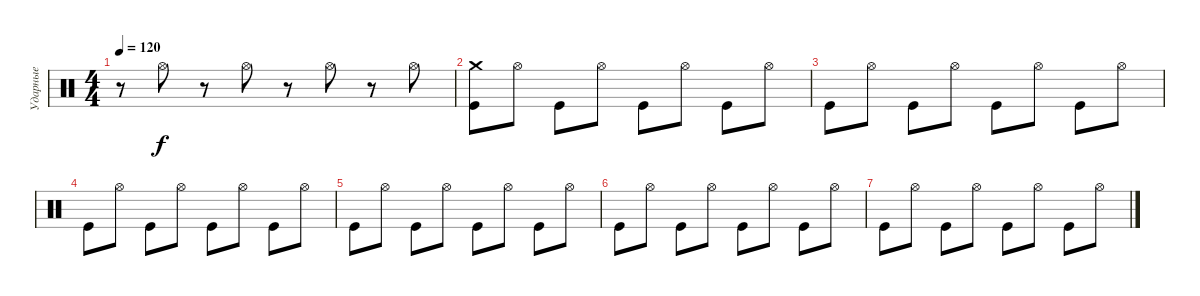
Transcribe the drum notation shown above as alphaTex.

\track ("Ударные" "Ударные") {instrument percussion}
\staff {score}
\articulation defaults
\ts (4 4)
\tempo 120
\clef neutral
\ks c
r.8{dy f} "Hi-Hat (open)".8 r.8 "Hi-Hat (open)".8 r.8 "Hi-Hat (open)".8 r.8 "Hi-Hat (open)".8 |
("Kick (hit)" "Crash medium (hit)").8 "Hi-Hat (open)".8 "Kick (hit)".8 "Hi-Hat (open)".8 "Kick (hit)".8 "Hi-Hat (open)".8 "Kick (hit)".8 "Hi-Hat (open)".8 |
"Kick (hit)".8 "Hi-Hat (open)".8 "Kick (hit)".8 "Hi-Hat (open)".8 "Kick (hit)".8 "Hi-Hat (open)".8 "Kick (hit)".8 "Hi-Hat (open)".8 |
"Kick (hit)".8 "Hi-Hat (open)".8 "Kick (hit)".8 "Hi-Hat (open)".8 "Kick (hit)".8 "Hi-Hat (open)".8 "Kick (hit)".8 "Hi-Hat (open)".8 |
"Kick (hit)".8 "Hi-Hat (open)".8 "Kick (hit)".8 "Hi-Hat (open)".8 "Kick (hit)".8 "Hi-Hat (open)".8 "Kick (hit)".8 "Hi-Hat (open)".8 |
"Kick (hit)".8 "Hi-Hat (open)".8 "Kick (hit)".8 "Hi-Hat (open)".8 "Kick (hit)".8 "Hi-Hat (open)".8 "Kick (hit)".8 "Hi-Hat (open)".8 |
"Kick (hit)".8 "Hi-Hat (open)".8 "Kick (hit)".8 "Hi-Hat (open)".8 "Kick (hit)".8 "Hi-Hat (open)".8 "Kick (hit)".8 "Hi-Hat (open)".8
